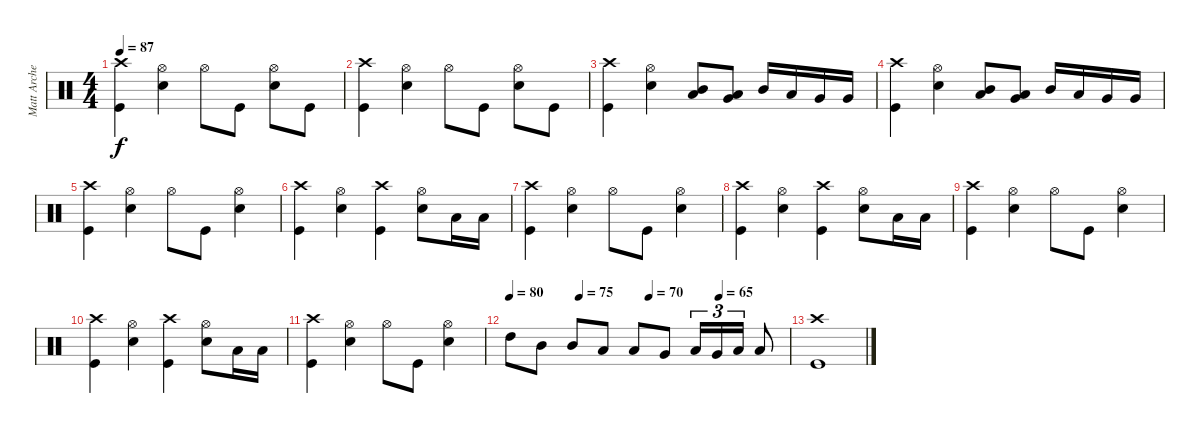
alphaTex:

\track ("Matt Archer" "Matt Arche") {instrument percussion}
\staff {score}
\articulation defaults
\ts (4 4)
\tempo 87
\clef neutral
\ks c
("Kick (hit)" "Crash high (hit)").4{dy f} ("Snare (hit) 2" "Hi-Hat (open)").4 "Hi-Hat (open)".8 "Kick (hit)".8 ("Snare (hit) 2" "Hi-Hat (open)").8 "Kick (hit)".8 |
("Kick (hit)" "Crash high (hit)").4 ("Snare (hit) 2" "Hi-Hat (open)").4 "Hi-Hat (open)".8 "Kick (hit)".8 ("Snare (hit) 2" "Hi-Hat (open)").8 "Kick (hit)".8 |
("Kick (hit)" "Crash high (hit)").4 ("Snare (hit) 2" "Hi-Hat (open)").4 ("Mid Tom (hit)" "Low Tom (hit)").8 ("Low Tom (hit)" "Very Low Tom (hit)").8 "Mid Tom (hit)".16 "Low Tom (hit)".16 "Very Low Tom (hit)".16 "Very Low Tom (hit)".16 |
("Kick (hit)" "Crash high (hit)").4 ("Snare (hit) 2" "Hi-Hat (open)").4 ("Mid Tom (hit)" "Low Tom (hit)").8 ("Low Tom (hit)" "Very Low Tom (hit)").8 "Mid Tom (hit)".16 "Low Tom (hit)".16 "Very Low Tom (hit)".16 "Very Low Tom (hit)".16 |
("Kick (hit)" "Crash high (hit)").4 ("Snare (hit) 2" "Hi-Hat (open)").4 "Hi-Hat (open)".8 "Kick (hit)".8 ("Snare (hit) 2" "Hi-Hat (open)").4 |
("Kick (hit)" "Crash high (hit)").4 ("Snare (hit) 2" "Hi-Hat (open)").4 ("Kick (hit)" "Crash high (hit)").4 ("Snare (hit) 2" "Hi-Hat (open)").8 "Low Tom (hit)".16 "Low Tom (hit)".16 |
("Kick (hit)" "Crash high (hit)").4 ("Snare (hit) 2" "Hi-Hat (open)").4 "Hi-Hat (open)".8 "Kick (hit)".8 ("Snare (hit) 2" "Hi-Hat (open)").4 |
("Kick (hit)" "Crash high (hit)").4 ("Snare (hit) 2" "Hi-Hat (open)").4 ("Kick (hit)" "Crash high (hit)").4 ("Snare (hit) 2" "Hi-Hat (open)").8 "Low Tom (hit)".16 "Low Tom (hit)".16 |
("Kick (hit)" "Crash high (hit)").4 ("Snare (hit) 2" "Hi-Hat (open)").4 "Hi-Hat (open)".8 "Kick (hit)".8 ("Snare (hit) 2" "Hi-Hat (open)").4 |
("Kick (hit)" "Crash high (hit)").4 ("Snare (hit) 2" "Hi-Hat (open)").4 ("Kick (hit)" "Crash high (hit)").4 ("Snare (hit) 2" "Hi-Hat (open)").8 "Low Tom (hit)".16 "Low Tom (hit)".16 |
("Kick (hit)" "Crash high (hit)").4 ("Snare (hit) 2" "Hi-Hat (open)").4 "Hi-Hat (open)".8 "Kick (hit)".8 ("Snare (hit) 2" "Hi-Hat (open)").4 |
\tempo 80
\tempo (75 0.25)
\tempo (70 0.5)
\tempo (65 0.75)
"High Tom (hit)".8 "Mid Tom (hit)".8 "Mid Tom (hit)".8 "Low Tom (hit)".8 "Low Tom (hit)".8 "Very Low Tom (hit)".8 "Low Tom (hit)".16{tu (3 2)} "Very Low Tom (hit)".16{tu (3 2)} "Low Floor Tom (hit)".16{tu (3 2)} "Low Floor Tom (hit)".8 |
("Kick (hit)" "Crash high (hit)").1
